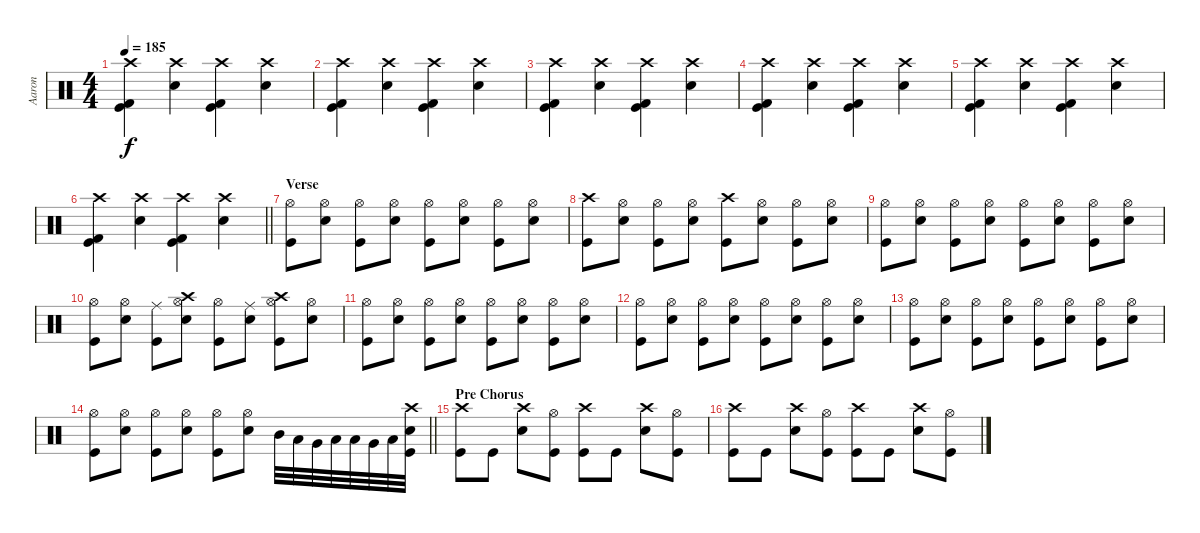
\track ("Aaron" "Aaron") {instrument percussion}
\staff {score}
\articulation defaults
\ts (4 4)
\tempo 185
\clef neutral
\ks c
("Crash high (hit)" "Kick (hit)" "Kick (hit) 2").4{dy f} ("Crash high (hit)" "Snare (hit) 2").4 ("Crash high (hit)" "Kick (hit)" "Kick (hit) 2").4 ("Crash high (hit)" "Snare (hit) 2").4 |
("Crash high (hit)" "Kick (hit)" "Kick (hit) 2").4 ("Crash high (hit)" "Snare (hit) 2").4 ("Crash high (hit)" "Kick (hit)" "Kick (hit) 2").4 ("Crash high (hit)" "Snare (hit) 2").4 |
("Crash high (hit)" "Kick (hit)" "Kick (hit) 2").4 ("Crash high (hit)" "Snare (hit) 2").4 ("Crash high (hit)" "Kick (hit)" "Kick (hit) 2").4 ("Crash high (hit)" "Snare (hit) 2").4 |
("Crash high (hit)" "Kick (hit)" "Kick (hit) 2").4 ("Crash high (hit)" "Snare (hit) 2").4 ("Crash high (hit)" "Kick (hit)" "Kick (hit) 2").4 ("Crash high (hit)" "Snare (hit) 2").4 |
("Crash high (hit)" "Kick (hit)" "Kick (hit) 2").4 ("Crash high (hit)" "Snare (hit) 2").4 ("Crash high (hit)" "Kick (hit)" "Kick (hit) 2").4 ("Crash high (hit)" "Snare (hit) 2").4 |
\barLineRight lightlight
("Crash high (hit)" "Kick (hit)" "Kick (hit) 2").4 ("Crash high (hit)" "Snare (hit) 2").4 ("Crash high (hit)" "Kick (hit)" "Kick (hit) 2").4 ("Crash high (hit)" "Snare (hit) 2").4 |
\section ("" "Verse")
("Hi-Hat (open)" "Kick (hit)").8 ("Hi-Hat (open)" "Snare (hit) 2").8 ("Hi-Hat (open)" "Kick (hit)").8 ("Hi-Hat (open)" "Snare (hit) 2").8 ("Hi-Hat (open)" "Kick (hit)").8 ("Hi-Hat (open)" "Snare (hit) 2").8 ("Hi-Hat (open)" "Kick (hit)").8 ("Hi-Hat (open)" "Snare (hit) 2").8 |
("Crash high (hit)" "Kick (hit)").8 ("Hi-Hat (open)" "Snare (hit) 2").8 ("Hi-Hat (open)" "Kick (hit)").8 ("Hi-Hat (open)" "Snare (hit) 2").8 ("Crash high (hit)" "Kick (hit)").8 ("Hi-Hat (open)" "Snare (hit) 2").8 ("Hi-Hat (open)" "Kick (hit)").8 ("Hi-Hat (open)" "Snare (hit) 2").8 |
("Hi-Hat (open)" "Kick (hit)").8 ("Hi-Hat (open)" "Snare (hit) 2").8 ("Hi-Hat (open)" "Kick (hit)").8 ("Hi-Hat (open)" "Snare (hit) 2").8 ("Hi-Hat (open)" "Kick (hit)").8 ("Hi-Hat (open)" "Snare (hit) 2").8 ("Hi-Hat (open)" "Kick (hit)").8 ("Hi-Hat (open)" "Snare (hit) 2").8 |
("Hi-Hat (open)" "Kick (hit)").8 ("Hi-Hat (open)" "Snare (hit) 2").8 ("Ride (middle)" "Kick (hit)").8 ("Crash high (hit)" "Hi-Hat (open)" "Snare (hit) 2").8 ("Hi-Hat (open)" "Kick (hit)").8 ("Ride (middle)" "Snare (hit) 2").8 ("Crash high (hit)" "Hi-Hat (open)" "Kick (hit)").8 ("Hi-Hat (open)" "Snare (hit) 2").8 |
("Hi-Hat (open)" "Kick (hit)").8 ("Hi-Hat (open)" "Snare (hit) 2").8 ("Hi-Hat (open)" "Kick (hit)").8 ("Hi-Hat (open)" "Snare (hit) 2").8 ("Hi-Hat (open)" "Kick (hit)").8 ("Hi-Hat (open)" "Snare (hit) 2").8 ("Hi-Hat (open)" "Kick (hit)").8 ("Hi-Hat (open)" "Snare (hit) 2").8 |
("Hi-Hat (open)" "Kick (hit)").8 ("Hi-Hat (open)" "Snare (hit) 2").8 ("Hi-Hat (open)" "Kick (hit)").8 ("Hi-Hat (open)" "Snare (hit) 2").8 ("Hi-Hat (open)" "Kick (hit)").8 ("Hi-Hat (open)" "Snare (hit) 2").8 ("Hi-Hat (open)" "Kick (hit)").8 ("Hi-Hat (open)" "Snare (hit) 2").8 |
("Hi-Hat (open)" "Kick (hit)").8 ("Hi-Hat (open)" "Snare (hit) 2").8 ("Hi-Hat (open)" "Kick (hit)").8 ("Hi-Hat (open)" "Snare (hit) 2").8 ("Hi-Hat (open)" "Kick (hit)").8 ("Hi-Hat (open)" "Snare (hit) 2").8 ("Hi-Hat (open)" "Kick (hit)").8 ("Hi-Hat (open)" "Snare (hit) 2").8 |
\barLineRight lightlight
("Hi-Hat (open)" "Kick (hit)").8 ("Hi-Hat (open)" "Snare (hit) 2").8 ("Hi-Hat (open)" "Kick (hit)").8 ("Hi-Hat (open)" "Snare (hit) 2").8 ("Hi-Hat (open)" "Kick (hit)").8 ("Hi-Hat (open)" "Snare (hit) 2").8 "Mid Tom (hit)".32 "Low Tom (hit)".32 "Very Low Tom (hit)".32 "Low Floor Tom (hit)".32 "Low Tom (hit)".32 "Very Low Tom (hit)".32 "Low Floor Tom (hit)".32 ("Kick (hit)" "Snare (hit) 2" "Crash high (hit)").32 |
\section ("" "Pre Chorus")
("Crash high (hit)" "Kick (hit)").8 "Kick (hit)".8 ("Crash high (hit)" "Snare (hit) 2").8 ("Hi-Hat (open)" "Kick (hit)").8 ("Crash high (hit)" "Kick (hit)").8 "Kick (hit)".8 ("Crash high (hit)" "Snare (hit) 2").8 ("Hi-Hat (open)" "Kick (hit)").8 |
("Crash high (hit)" "Kick (hit)").8 "Kick (hit)".8 ("Crash high (hit)" "Snare (hit) 2").8 ("Hi-Hat (open)" "Kick (hit)").8 ("Crash high (hit)" "Kick (hit)").8 "Kick (hit)".8 ("Crash high (hit)" "Snare (hit) 2").8 ("Hi-Hat (open)" "Kick (hit)").8
